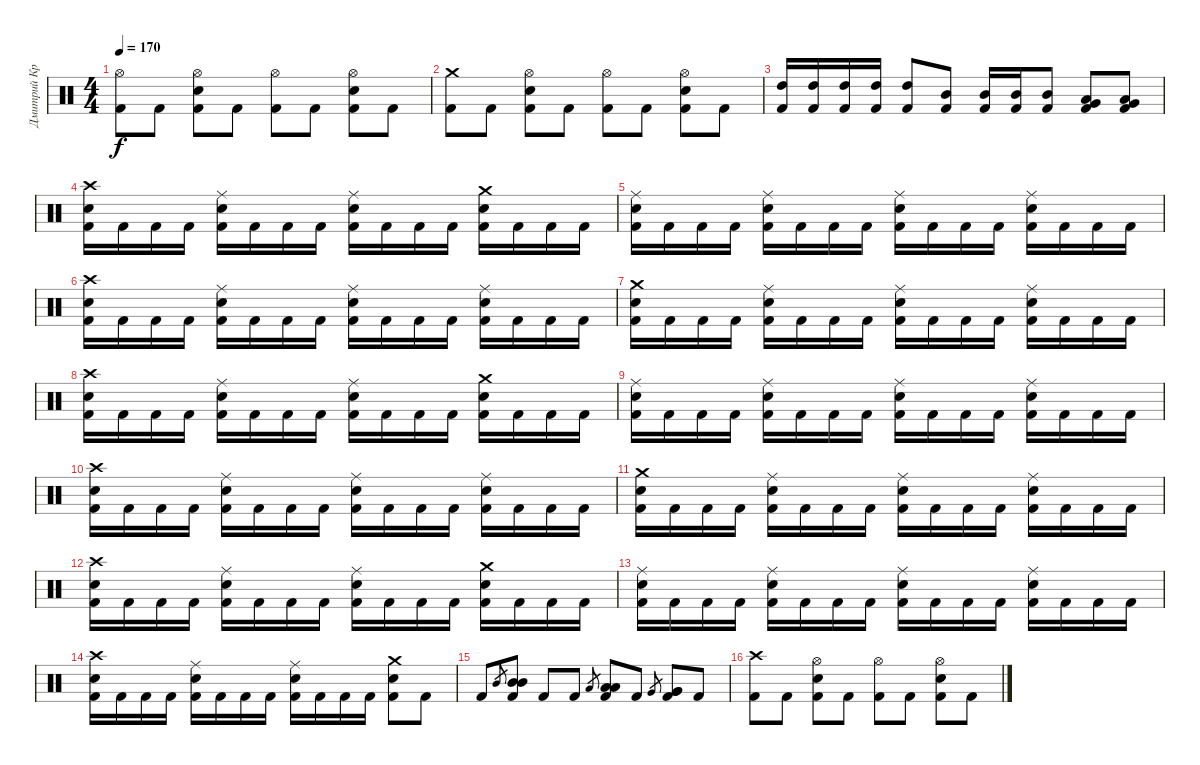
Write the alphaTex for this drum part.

\track ("Дмитрий Кривенков" "Дмитрий Кр") {instrument percussion}
\staff {score}
\articulation defaults
\ts (4 4)
\tempo 170
\clef neutral
\ks c
("Hi-Hat (open)" "Kick (hit) 2").8{dy f} "Kick (hit) 2".8 ("Hi-Hat (open)" "Electric Snare (hit)" "Kick (hit) 2").8 "Kick (hit) 2".8 ("Hi-Hat (open)" "Kick (hit) 2").8 "Kick (hit) 2".8 ("Hi-Hat (open)" "Electric Snare (hit)" "Kick (hit) 2").8 "Kick (hit) 2".8 |
("Crash medium (hit)" "Kick (hit) 2").8 "Kick (hit) 2".8 ("Hi-Hat (open)" "Electric Snare (hit)" "Kick (hit) 2").8 "Kick (hit) 2".8 ("Hi-Hat (open)" "Kick (hit) 2").8 "Kick (hit) 2".8 ("Hi-Hat (open)" "Electric Snare (hit)" "Kick (hit) 2").8 "Kick (hit) 2".8 |
("High Tom (hit)" "Kick (hit) 2").16 ("High Tom (hit)" "Kick (hit) 2").16 ("High Tom (hit)" "Kick (hit) 2").16 ("High Tom (hit)" "Kick (hit) 2").16 ("High Tom (hit)" "Kick (hit) 2").8 ("Mid Tom (hit)" "Kick (hit) 2").8 ("Mid Tom (hit)" "Kick (hit) 2").16 ("Mid Tom (hit)" "Kick (hit) 2").16 ("Mid Tom (hit)" "Kick (hit) 2").8 ("Low Tom (hit)" "Very Low Tom (hit)" "Kick (hit) 2").8 ("Low Tom (hit)" "Very Low Tom (hit)" "Kick (hit) 2").8 |
("Crash high (hit)" "Electric Snare (hit)" "Kick (hit) 2").16 "Kick (hit) 2".16 "Kick (hit) 2".16 "Kick (hit) 2".16 ("Ride (middle)" "Electric Snare (hit)" "Kick (hit) 2").16 "Kick (hit) 2".16 "Kick (hit) 2".16 "Kick (hit) 2".16 ("Ride (middle)" "Electric Snare (hit)" "Kick (hit) 2").16 "Kick (hit) 2".16 "Kick (hit) 2".16 "Kick (hit) 2".16 ("Crash medium (hit)" "Electric Snare (hit)" "Kick (hit) 2").16 "Kick (hit) 2".16 "Kick (hit) 2".16 "Kick (hit) 2".16 |
("Ride (middle)" "Electric Snare (hit)" "Kick (hit) 2").16 "Kick (hit) 2".16 "Kick (hit) 2".16 "Kick (hit) 2".16 ("Ride (middle)" "Electric Snare (hit)" "Kick (hit) 2").16 "Kick (hit) 2".16 "Kick (hit) 2".16 "Kick (hit) 2".16 ("Ride (middle)" "Electric Snare (hit)" "Kick (hit) 2").16 "Kick (hit) 2".16 "Kick (hit) 2".16 "Kick (hit) 2".16 ("Ride (middle)" "Electric Snare (hit)" "Kick (hit) 2").16 "Kick (hit) 2".16 "Kick (hit) 2".16 "Kick (hit) 2".16 |
("Crash high (hit)" "Electric Snare (hit)" "Kick (hit) 2").16 "Kick (hit) 2".16 "Kick (hit) 2".16 "Kick (hit) 2".16 ("Ride (middle)" "Electric Snare (hit)" "Kick (hit) 2").16 "Kick (hit) 2".16 "Kick (hit) 2".16 "Kick (hit) 2".16 ("Ride (middle)" "Electric Snare (hit)" "Kick (hit) 2").16 "Kick (hit) 2".16 "Kick (hit) 2".16 "Kick (hit) 2".16 ("Ride (middle)" "Electric Snare (hit)" "Kick (hit) 2").16 "Kick (hit) 2".16 "Kick (hit) 2".16 "Kick (hit) 2".16 |
("Crash medium (hit)" "Electric Snare (hit)" "Kick (hit) 2").16 "Kick (hit) 2".16 "Kick (hit) 2".16 "Kick (hit) 2".16 ("Ride (middle)" "Electric Snare (hit)" "Kick (hit) 2").16 "Kick (hit) 2".16 "Kick (hit) 2".16 "Kick (hit) 2".16 ("Ride (middle)" "Electric Snare (hit)" "Kick (hit) 2").16 "Kick (hit) 2".16 "Kick (hit) 2".16 "Kick (hit) 2".16 ("Ride (middle)" "Electric Snare (hit)" "Kick (hit) 2").16 "Kick (hit) 2".16 "Kick (hit) 2".16 "Kick (hit) 2".16 |
("Crash high (hit)" "Electric Snare (hit)" "Kick (hit) 2").16 "Kick (hit) 2".16 "Kick (hit) 2".16 "Kick (hit) 2".16 ("Ride (middle)" "Electric Snare (hit)" "Kick (hit) 2").16 "Kick (hit) 2".16 "Kick (hit) 2".16 "Kick (hit) 2".16 ("Ride (middle)" "Electric Snare (hit)" "Kick (hit) 2").16 "Kick (hit) 2".16 "Kick (hit) 2".16 "Kick (hit) 2".16 ("Crash medium (hit)" "Electric Snare (hit)" "Kick (hit) 2").16 "Kick (hit) 2".16 "Kick (hit) 2".16 "Kick (hit) 2".16 |
("Ride (middle)" "Electric Snare (hit)" "Kick (hit) 2").16 "Kick (hit) 2".16 "Kick (hit) 2".16 "Kick (hit) 2".16 ("Ride (middle)" "Electric Snare (hit)" "Kick (hit) 2").16 "Kick (hit) 2".16 "Kick (hit) 2".16 "Kick (hit) 2".16 ("Ride (middle)" "Electric Snare (hit)" "Kick (hit) 2").16 "Kick (hit) 2".16 "Kick (hit) 2".16 "Kick (hit) 2".16 ("Ride (middle)" "Electric Snare (hit)" "Kick (hit) 2").16 "Kick (hit) 2".16 "Kick (hit) 2".16 "Kick (hit) 2".16 |
("Crash high (hit)" "Electric Snare (hit)" "Kick (hit) 2").16 "Kick (hit) 2".16 "Kick (hit) 2".16 "Kick (hit) 2".16 ("Ride (middle)" "Electric Snare (hit)" "Kick (hit) 2").16 "Kick (hit) 2".16 "Kick (hit) 2".16 "Kick (hit) 2".16 ("Ride (middle)" "Electric Snare (hit)" "Kick (hit) 2").16 "Kick (hit) 2".16 "Kick (hit) 2".16 "Kick (hit) 2".16 ("Ride (middle)" "Electric Snare (hit)" "Kick (hit) 2").16 "Kick (hit) 2".16 "Kick (hit) 2".16 "Kick (hit) 2".16 |
("Crash medium (hit)" "Electric Snare (hit)" "Kick (hit) 2").16 "Kick (hit) 2".16 "Kick (hit) 2".16 "Kick (hit) 2".16 ("Ride (middle)" "Electric Snare (hit)" "Kick (hit) 2").16 "Kick (hit) 2".16 "Kick (hit) 2".16 "Kick (hit) 2".16 ("Ride (middle)" "Electric Snare (hit)" "Kick (hit) 2").16 "Kick (hit) 2".16 "Kick (hit) 2".16 "Kick (hit) 2".16 ("Ride (middle)" "Electric Snare (hit)" "Kick (hit) 2").16 "Kick (hit) 2".16 "Kick (hit) 2".16 "Kick (hit) 2".16 |
("Crash high (hit)" "Electric Snare (hit)" "Kick (hit) 2").16 "Kick (hit) 2".16 "Kick (hit) 2".16 "Kick (hit) 2".16 ("Ride (middle)" "Electric Snare (hit)" "Kick (hit) 2").16 "Kick (hit) 2".16 "Kick (hit) 2".16 "Kick (hit) 2".16 ("Ride (middle)" "Electric Snare (hit)" "Kick (hit) 2").16 "Kick (hit) 2".16 "Kick (hit) 2".16 "Kick (hit) 2".16 ("Crash medium (hit)" "Electric Snare (hit)" "Kick (hit) 2").16 "Kick (hit) 2".16 "Kick (hit) 2".16 "Kick (hit) 2".16 |
("Ride (middle)" "Electric Snare (hit)" "Kick (hit) 2").16 "Kick (hit) 2".16 "Kick (hit) 2".16 "Kick (hit) 2".16 ("Ride (middle)" "Electric Snare (hit)" "Kick (hit) 2").16 "Kick (hit) 2".16 "Kick (hit) 2".16 "Kick (hit) 2".16 ("Ride (middle)" "Electric Snare (hit)" "Kick (hit) 2").16 "Kick (hit) 2".16 "Kick (hit) 2".16 "Kick (hit) 2".16 ("Ride (middle)" "Electric Snare (hit)" "Kick (hit) 2").16 "Kick (hit) 2".16 "Kick (hit) 2".16 "Kick (hit) 2".16 |
("Crash high (hit)" "Electric Snare (hit)" "Kick (hit) 2").16 "Kick (hit) 2".16 "Kick (hit) 2".16 "Kick (hit) 2".16 ("Ride (middle)" "Electric Snare (hit)" "Kick (hit) 2").16 "Kick (hit) 2".16 "Kick (hit) 2".16 "Kick (hit) 2".16 ("Ride (middle)" "Electric Snare (hit)" "Kick (hit) 2").16 "Kick (hit) 2".16 "Kick (hit) 2".16 "Kick (hit) 2".16 ("Crash medium (hit)" "Electric Snare (hit)" "Kick (hit) 2").8 "Kick (hit) 2".8 |
"Kick (hit) 2".8 "Mid Tom (hit)".8{gr} ("Mid Tom (hit)" "Mid Tom (hit)" "Kick (hit) 2").8 "Kick (hit) 2".8 "Kick (hit) 2".8 "Low Tom (hit)".8{gr} ("Low Tom (hit)" "Low Tom (hit)" "Kick (hit) 2").8 "Kick (hit) 2".8 "Very Low Tom (hit)".8{gr} ("Very Low Tom (hit)" "Very Low Tom (hit)" "Kick (hit) 2").8 "Kick (hit) 2".8 |
("Crash high (hit)" "Kick (hit) 2").8 "Kick (hit) 2".8 ("Hi-Hat (open)" "Electric Snare (hit)" "Kick (hit) 2").8 "Kick (hit) 2".8 ("Hi-Hat (open)" "Kick (hit) 2").8 "Kick (hit) 2".8 ("Hi-Hat (open)" "Electric Snare (hit)" "Kick (hit) 2").8 "Kick (hit) 2".8
